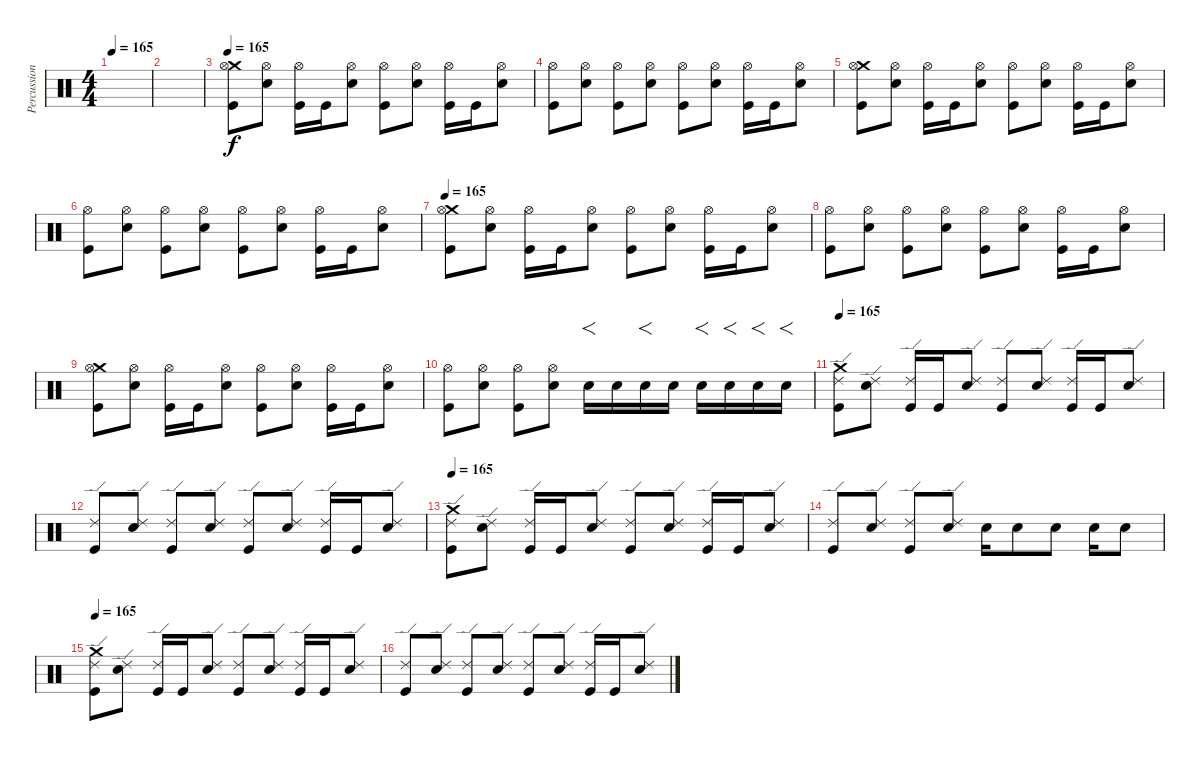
\track ("Percussion" "Percussion") {instrument percussion}
\staff {score}
\articulation defaults
\ts (4 4)
\tempo 165
\clef neutral
\ks c
|
|
\tempo 165
("Crash medium (hit)" "Hi-Hat (open)" "Kick (hit)").8 ("Hi-Hat (open)" "Electric Snare (hit)").8 ("Hi-Hat (open)" "Kick (hit)").16 "Kick (hit)".16 ("Hi-Hat (open)" "Electric Snare (hit)").8 ("Hi-Hat (open)" "Kick (hit)").8 ("Hi-Hat (open)" "Electric Snare (hit)").8 ("Hi-Hat (open)" "Kick (hit)").16 "Kick (hit)".16 ("Hi-Hat (open)" "Electric Snare (hit)").8 |
("Hi-Hat (open)" "Kick (hit)").8 ("Hi-Hat (open)" "Electric Snare (hit)").8 ("Hi-Hat (open)" "Kick (hit)").8 ("Hi-Hat (open)" "Electric Snare (hit)").8 ("Hi-Hat (open)" "Kick (hit)").8 ("Hi-Hat (open)" "Electric Snare (hit)").8 ("Hi-Hat (open)" "Kick (hit)").16 "Kick (hit)".16 ("Hi-Hat (open)" "Electric Snare (hit)").8 |
("Crash medium (hit)" "Hi-Hat (open)" "Kick (hit)").8 ("Hi-Hat (open)" "Electric Snare (hit)").8 ("Hi-Hat (open)" "Kick (hit)").16 "Kick (hit)".16 ("Hi-Hat (open)" "Electric Snare (hit)").8 ("Hi-Hat (open)" "Kick (hit)").8 ("Hi-Hat (open)" "Electric Snare (hit)").8 ("Hi-Hat (open)" "Kick (hit)").16 "Kick (hit)".16 ("Hi-Hat (open)" "Electric Snare (hit)").8 |
("Hi-Hat (open)" "Kick (hit)").8 ("Hi-Hat (open)" "Electric Snare (hit)").8 ("Hi-Hat (open)" "Kick (hit)").8 ("Hi-Hat (open)" "Electric Snare (hit)").8 ("Hi-Hat (open)" "Kick (hit)").8 ("Hi-Hat (open)" "Electric Snare (hit)").8 ("Hi-Hat (open)" "Kick (hit)").16 "Kick (hit)".16 ("Hi-Hat (open)" "Electric Snare (hit)").8 |
\tempo 165
("Crash medium (hit)" "Hi-Hat (open)" "Kick (hit)").8 ("Hi-Hat (open)" "Electric Snare (hit)").8 ("Hi-Hat (open)" "Kick (hit)").16 "Kick (hit)".16 ("Hi-Hat (open)" "Electric Snare (hit)").8 ("Hi-Hat (open)" "Kick (hit)").8 ("Hi-Hat (open)" "Electric Snare (hit)").8 ("Hi-Hat (open)" "Kick (hit)").16 "Kick (hit)".16 ("Hi-Hat (open)" "Electric Snare (hit)").8 |
("Hi-Hat (open)" "Kick (hit)").8 ("Hi-Hat (open)" "Electric Snare (hit)").8 ("Hi-Hat (open)" "Kick (hit)").8 ("Hi-Hat (open)" "Electric Snare (hit)").8 ("Hi-Hat (open)" "Kick (hit)").8 ("Hi-Hat (open)" "Electric Snare (hit)").8 ("Hi-Hat (open)" "Kick (hit)").16 "Kick (hit)".16 ("Hi-Hat (open)" "Electric Snare (hit)").8 |
("Crash medium (hit)" "Hi-Hat (open)" "Kick (hit)").8 ("Hi-Hat (open)" "Electric Snare (hit)").8 ("Hi-Hat (open)" "Kick (hit)").16 "Kick (hit)".16 ("Hi-Hat (open)" "Electric Snare (hit)").8 ("Hi-Hat (open)" "Kick (hit)").8 ("Hi-Hat (open)" "Electric Snare (hit)").8 ("Hi-Hat (open)" "Kick (hit)").16 "Kick (hit)".16 ("Hi-Hat (open)" "Electric Snare (hit)").8 |
("Hi-Hat (open)" "Kick (hit)").8 ("Hi-Hat (open)" "Electric Snare (hit)").8 ("Hi-Hat (open)" "Kick (hit)").8 ("Hi-Hat (open)" "Electric Snare (hit)").8 "Electric Snare (hit)".16{f} "Electric Snare (hit)".16 "Electric Snare (hit)".16{f} "Electric Snare (hit)".16 "Electric Snare (hit)".16{f} "Electric Snare (hit)".16{f} "Electric Snare (hit)".16{f} "Electric Snare (hit)".16{f} |
\tempo 165
("Crash medium (hit)" "Ride (edge) 2" "Kick (hit)").8 ("Ride (edge) 2" "Electric Snare (hit)").8 ("Ride (edge) 2" "Kick (hit)").16 "Kick (hit)".16 ("Ride (edge) 2" "Electric Snare (hit)").8 ("Ride (edge) 2" "Kick (hit)").8 ("Ride (edge) 2" "Electric Snare (hit)").8 ("Ride (edge) 2" "Kick (hit)").16 "Kick (hit)".16 ("Ride (edge) 2" "Electric Snare (hit)").8 |
("Ride (edge) 2" "Kick (hit)").8 ("Ride (edge) 2" "Electric Snare (hit)").8 ("Ride (edge) 2" "Kick (hit)").8 ("Ride (edge) 2" "Electric Snare (hit)").8 ("Ride (edge) 2" "Kick (hit)").8 ("Ride (edge) 2" "Electric Snare (hit)").8 ("Ride (edge) 2" "Kick (hit)").16 "Kick (hit)".16 ("Ride (edge) 2" "Electric Snare (hit)").8 |
\tempo 165
("Crash medium (hit)" "Ride (edge) 2" "Kick (hit)").8 ("Ride (edge) 2" "Electric Snare (hit)").8 ("Ride (edge) 2" "Kick (hit)").16 "Kick (hit)".16 ("Ride (edge) 2" "Electric Snare (hit)").8 ("Ride (edge) 2" "Kick (hit)").8 ("Ride (edge) 2" "Electric Snare (hit)").8 ("Ride (edge) 2" "Kick (hit)").16 "Kick (hit)".16 ("Ride (edge) 2" "Electric Snare (hit)").8 |
("Ride (edge) 2" "Kick (hit)").8 ("Ride (edge) 2" "Electric Snare (hit)").8 ("Ride (edge) 2" "Kick (hit)").8 ("Ride (edge) 2" "Electric Snare (hit)").8 "Electric Snare (hit)".16 "Electric Snare (hit)".8 "Electric Snare (hit)".8 "Electric Snare (hit)".16 "Electric Snare (hit)".8 |
\tempo 165
("Crash medium (hit)" "Ride (edge) 2" "Kick (hit)").8 ("Ride (edge) 2" "Electric Snare (hit)").8 ("Ride (edge) 2" "Kick (hit)").16 "Kick (hit)".16 ("Ride (edge) 2" "Electric Snare (hit)").8 ("Ride (edge) 2" "Kick (hit)").8 ("Ride (edge) 2" "Electric Snare (hit)").8 ("Ride (edge) 2" "Kick (hit)").16 "Kick (hit)".16 ("Ride (edge) 2" "Electric Snare (hit)").8 |
("Ride (edge) 2" "Kick (hit)").8 ("Ride (edge) 2" "Electric Snare (hit)").8 ("Ride (edge) 2" "Kick (hit)").8 ("Ride (edge) 2" "Electric Snare (hit)").8 ("Ride (edge) 2" "Kick (hit)").8 ("Ride (edge) 2" "Electric Snare (hit)").8 ("Ride (edge) 2" "Kick (hit)").16 "Kick (hit)".16 ("Ride (edge) 2" "Electric Snare (hit)").8
